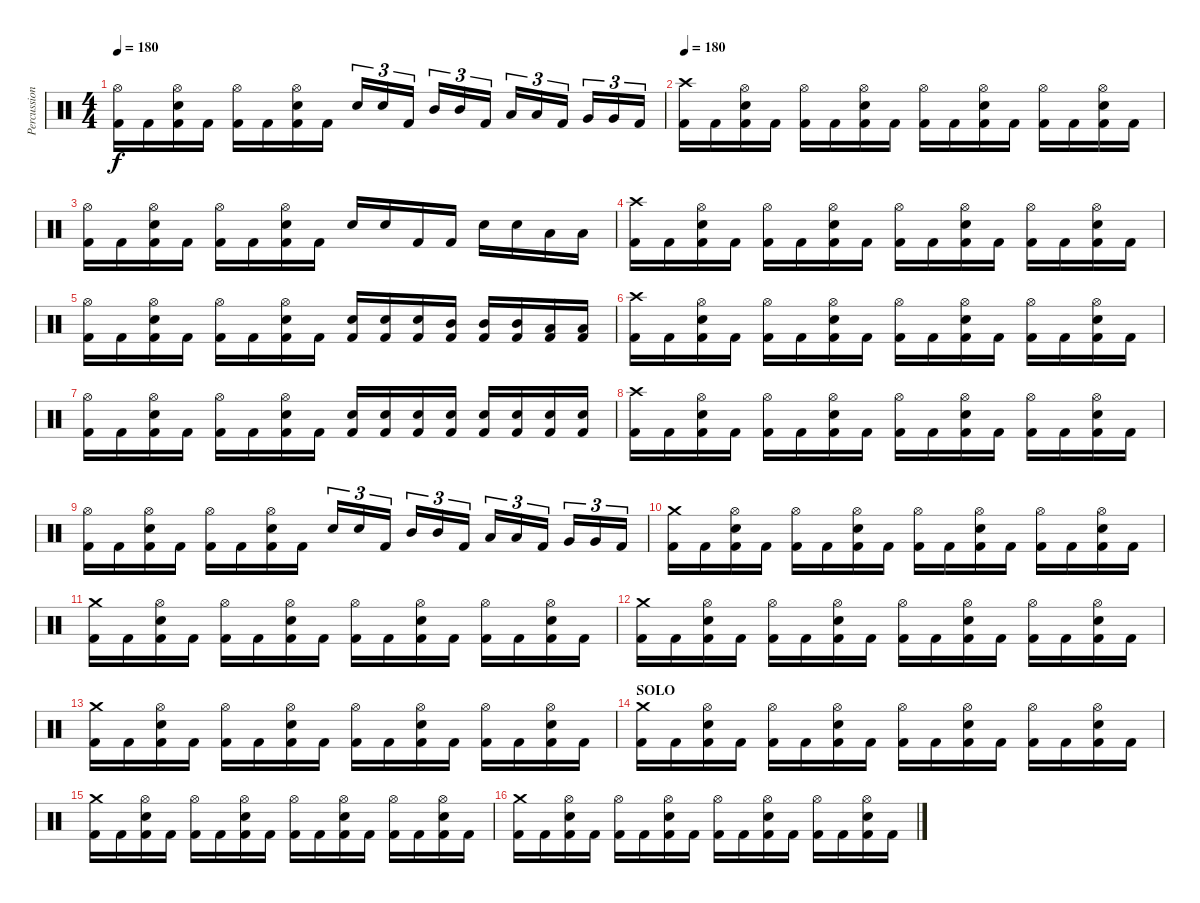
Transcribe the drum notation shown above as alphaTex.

\track ("Percussion" "Percussion") {instrument percussion}
\staff {score}
\articulation defaults
\ts (4 4)
\tempo 180
\clef neutral
\ks c
("Hi-Hat (open)" "Kick (hit) 2").16{dy f} "Kick (hit) 2".16 ("Hi-Hat (open)" "Snare (hit) 2" "Kick (hit) 2").16 "Kick (hit) 2".16 ("Hi-Hat (open)" "Kick (hit) 2").16 "Kick (hit) 2".16 ("Hi-Hat (open)" "Snare (hit) 2" "Kick (hit) 2").16 "Kick (hit) 2".16 "Snare (hit) 2".16{tu (3 2)} "Snare (hit) 2".16{tu (3 2)} "Kick (hit) 2".16{tu (3 2)} "Mid Tom (hit)".16{tu (3 2)} "Mid Tom (hit)".16{tu (3 2)} "Kick (hit) 2".16{tu (3 2)} "Low Tom (hit)".16{tu (3 2)} "Low Tom (hit)".16{tu (3 2)} "Kick (hit) 2".16{tu (3 2)} "Very Low Tom (hit)".16{tu (3 2)} "Very Low Tom (hit)".16{tu (3 2)} "Kick (hit) 2".16{tu (3 2)} |
\tempo 180
("Crash high (hit)" "Kick (hit) 2").16 "Kick (hit) 2".16 ("Hi-Hat (open)" "Snare (hit) 2" "Kick (hit) 2").16 "Kick (hit) 2".16 ("Hi-Hat (open)" "Kick (hit) 2").16 "Kick (hit) 2".16 ("Hi-Hat (open)" "Snare (hit) 2" "Kick (hit) 2").16 "Kick (hit) 2".16 ("Hi-Hat (open)" "Kick (hit) 2").16 "Kick (hit) 2".16 ("Hi-Hat (open)" "Snare (hit) 2" "Kick (hit) 2").16 "Kick (hit) 2".16 ("Hi-Hat (open)" "Kick (hit) 2").16 "Kick (hit) 2".16 ("Hi-Hat (open)" "Snare (hit) 2" "Kick (hit) 2").16 "Kick (hit) 2".16 |
("Hi-Hat (open)" "Kick (hit) 2").16 "Kick (hit) 2".16 ("Hi-Hat (open)" "Snare (hit) 2" "Kick (hit) 2").16 "Kick (hit) 2".16 ("Hi-Hat (open)" "Kick (hit) 2").16 "Kick (hit) 2".16 ("Hi-Hat (open)" "Snare (hit) 2" "Kick (hit) 2").16 "Kick (hit) 2".16 "Snare (hit) 2".16 "Snare (hit) 2".16 "Kick (hit) 2".16 "Kick (hit) 2".16 "Snare (hit) 2".16 "Snare (hit) 2".16 "Low Tom (hit)".16 "Low Tom (hit)".16 |
("Crash high (hit)" "Kick (hit) 2").16 "Kick (hit) 2".16 ("Hi-Hat (open)" "Snare (hit) 2" "Kick (hit) 2").16 "Kick (hit) 2".16 ("Hi-Hat (open)" "Kick (hit) 2").16 "Kick (hit) 2".16 ("Hi-Hat (open)" "Snare (hit) 2" "Kick (hit) 2").16 "Kick (hit) 2".16 ("Hi-Hat (open)" "Kick (hit) 2").16 "Kick (hit) 2".16 ("Hi-Hat (open)" "Snare (hit) 2" "Kick (hit) 2").16 "Kick (hit) 2".16 ("Hi-Hat (open)" "Kick (hit) 2").16 "Kick (hit) 2".16 ("Hi-Hat (open)" "Snare (hit) 2" "Kick (hit) 2").16 "Kick (hit) 2".16 |
("Hi-Hat (open)" "Kick (hit) 2").16 "Kick (hit) 2".16 ("Hi-Hat (open)" "Snare (hit) 2" "Kick (hit) 2").16 "Kick (hit) 2".16 ("Hi-Hat (open)" "Kick (hit) 2").16 "Kick (hit) 2".16 ("Hi-Hat (open)" "Snare (hit) 2" "Kick (hit) 2").16 "Kick (hit) 2".16 ("Snare (hit) 2" "Kick (hit) 2").16 ("Snare (hit) 2" "Kick (hit) 2").16 ("Snare (hit) 2" "Kick (hit) 2").16 ("Mid Tom (hit)" "Kick (hit) 2").16 ("Mid Tom (hit)" "Kick (hit) 2").16 ("Mid Tom (hit)" "Kick (hit) 2").16 ("Low Tom (hit)" "Kick (hit) 2").16 ("Low Tom (hit)" "Kick (hit) 2").16 |
("Crash high (hit)" "Kick (hit) 2").16 "Kick (hit) 2".16 ("Hi-Hat (open)" "Snare (hit) 2" "Kick (hit) 2").16 "Kick (hit) 2".16 ("Hi-Hat (open)" "Kick (hit) 2").16 "Kick (hit) 2".16 ("Hi-Hat (open)" "Snare (hit) 2" "Kick (hit) 2").16 "Kick (hit) 2".16 ("Hi-Hat (open)" "Kick (hit) 2").16 "Kick (hit) 2".16 ("Hi-Hat (open)" "Snare (hit) 2" "Kick (hit) 2").16 "Kick (hit) 2".16 ("Hi-Hat (open)" "Kick (hit) 2").16 "Kick (hit) 2".16 ("Hi-Hat (open)" "Snare (hit) 2" "Kick (hit) 2").16 "Kick (hit) 2".16 |
("Hi-Hat (open)" "Kick (hit) 2").16 "Kick (hit) 2".16 ("Hi-Hat (open)" "Snare (hit) 2" "Kick (hit) 2").16 "Kick (hit) 2".16 ("Hi-Hat (open)" "Kick (hit) 2").16 "Kick (hit) 2".16 ("Hi-Hat (open)" "Snare (hit) 2" "Kick (hit) 2").16 "Kick (hit) 2".16 ("Snare (hit) 2" "Kick (hit) 2").16 ("Snare (hit) 2" "Kick (hit) 2").16 ("Snare (hit) 2" "Kick (hit) 2").16 ("Snare (hit) 2" "Kick (hit) 2").16 ("Snare (hit) 2" "Kick (hit) 2").16 ("Snare (hit) 2" "Kick (hit) 2").16 ("Snare (hit) 2" "Kick (hit) 2").16 ("Snare (hit) 2" "Kick (hit) 2").16 |
("Crash high (hit)" "Kick (hit) 2").16 "Kick (hit) 2".16 ("Hi-Hat (open)" "Snare (hit) 2" "Kick (hit) 2").16 "Kick (hit) 2".16 ("Hi-Hat (open)" "Kick (hit) 2").16 "Kick (hit) 2".16 ("Hi-Hat (open)" "Snare (hit) 2" "Kick (hit) 2").16 "Kick (hit) 2".16 ("Hi-Hat (open)" "Kick (hit) 2").16 "Kick (hit) 2".16 ("Hi-Hat (open)" "Snare (hit) 2" "Kick (hit) 2").16 "Kick (hit) 2".16 ("Hi-Hat (open)" "Kick (hit) 2").16 "Kick (hit) 2".16 ("Hi-Hat (open)" "Snare (hit) 2" "Kick (hit) 2").16 "Kick (hit) 2".16 |
("Hi-Hat (open)" "Kick (hit) 2").16 "Kick (hit) 2".16 ("Hi-Hat (open)" "Snare (hit) 2" "Kick (hit) 2").16 "Kick (hit) 2".16 ("Hi-Hat (open)" "Kick (hit) 2").16 "Kick (hit) 2".16 ("Hi-Hat (open)" "Snare (hit) 2" "Kick (hit) 2").16 "Kick (hit) 2".16 "Snare (hit) 2".16{tu (3 2)} "Snare (hit) 2".16{tu (3 2)} "Kick (hit) 2".16{tu (3 2)} "Mid Tom (hit)".16{tu (3 2)} "Mid Tom (hit)".16{tu (3 2)} "Kick (hit) 2".16{tu (3 2)} "Low Tom (hit)".16{tu (3 2)} "Low Tom (hit)".16{tu (3 2)} "Kick (hit) 2".16{tu (3 2)} "Very Low Tom (hit)".16{tu (3 2)} "Very Low Tom (hit)".16{tu (3 2)} "Kick (hit) 2".16{tu (3 2)} |
("Crash medium (hit)" "Kick (hit) 2").16 "Kick (hit) 2".16 ("Hi-Hat (open)" "Snare (hit) 2" "Kick (hit) 2").16 "Kick (hit) 2".16 ("Hi-Hat (open)" "Kick (hit) 2").16 "Kick (hit) 2".16 ("Hi-Hat (open)" "Snare (hit) 2" "Kick (hit) 2").16 "Kick (hit) 2".16 ("Hi-Hat (open)" "Kick (hit) 2").16 "Kick (hit) 2".16 ("Hi-Hat (open)" "Snare (hit) 2" "Kick (hit) 2").16 "Kick (hit) 2".16 ("Hi-Hat (open)" "Kick (hit) 2").16 "Kick (hit) 2".16 ("Hi-Hat (open)" "Snare (hit) 2" "Kick (hit) 2").16 "Kick (hit) 2".16 |
("Crash medium (hit)" "Kick (hit) 2").16 "Kick (hit) 2".16 ("Hi-Hat (open)" "Snare (hit) 2" "Kick (hit) 2").16 "Kick (hit) 2".16 ("Hi-Hat (open)" "Kick (hit) 2").16 "Kick (hit) 2".16 ("Hi-Hat (open)" "Snare (hit) 2" "Kick (hit) 2").16 "Kick (hit) 2".16 ("Hi-Hat (open)" "Kick (hit) 2").16 "Kick (hit) 2".16 ("Hi-Hat (open)" "Snare (hit) 2" "Kick (hit) 2").16 "Kick (hit) 2".16 ("Hi-Hat (open)" "Kick (hit) 2").16 "Kick (hit) 2".16 ("Hi-Hat (open)" "Snare (hit) 2" "Kick (hit) 2").16 "Kick (hit) 2".16 |
("Crash medium (hit)" "Kick (hit) 2").16 "Kick (hit) 2".16 ("Hi-Hat (open)" "Snare (hit) 2" "Kick (hit) 2").16 "Kick (hit) 2".16 ("Hi-Hat (open)" "Kick (hit) 2").16 "Kick (hit) 2".16 ("Hi-Hat (open)" "Snare (hit) 2" "Kick (hit) 2").16 "Kick (hit) 2".16 ("Hi-Hat (open)" "Kick (hit) 2").16 "Kick (hit) 2".16 ("Hi-Hat (open)" "Snare (hit) 2" "Kick (hit) 2").16 "Kick (hit) 2".16 ("Hi-Hat (open)" "Kick (hit) 2").16 "Kick (hit) 2".16 ("Hi-Hat (open)" "Snare (hit) 2" "Kick (hit) 2").16 "Kick (hit) 2".16 |
("Crash medium (hit)" "Kick (hit) 2").16 "Kick (hit) 2".16 ("Hi-Hat (open)" "Snare (hit) 2" "Kick (hit) 2").16 "Kick (hit) 2".16 ("Hi-Hat (open)" "Kick (hit) 2").16 "Kick (hit) 2".16 ("Hi-Hat (open)" "Snare (hit) 2" "Kick (hit) 2").16 "Kick (hit) 2".16 ("Hi-Hat (open)" "Kick (hit) 2").16 "Kick (hit) 2".16 ("Hi-Hat (open)" "Snare (hit) 2" "Kick (hit) 2").16 "Kick (hit) 2".16 ("Hi-Hat (open)" "Kick (hit) 2").16 "Kick (hit) 2".16 ("Hi-Hat (open)" "Snare (hit) 2" "Kick (hit) 2").16 "Kick (hit) 2".16 |
\section ("" "SOLO")
("Crash medium (hit)" "Kick (hit) 2").16 "Kick (hit) 2".16 ("Hi-Hat (open)" "Snare (hit) 2" "Kick (hit) 2").16 "Kick (hit) 2".16 ("Hi-Hat (open)" "Kick (hit) 2").16 "Kick (hit) 2".16 ("Hi-Hat (open)" "Snare (hit) 2" "Kick (hit) 2").16 "Kick (hit) 2".16 ("Hi-Hat (open)" "Kick (hit) 2").16 "Kick (hit) 2".16 ("Hi-Hat (open)" "Snare (hit) 2" "Kick (hit) 2").16 "Kick (hit) 2".16 ("Hi-Hat (open)" "Kick (hit) 2").16 "Kick (hit) 2".16 ("Hi-Hat (open)" "Snare (hit) 2" "Kick (hit) 2").16 "Kick (hit) 2".16 |
("Crash medium (hit)" "Kick (hit) 2").16 "Kick (hit) 2".16 ("Hi-Hat (open)" "Snare (hit) 2" "Kick (hit) 2").16 "Kick (hit) 2".16 ("Hi-Hat (open)" "Kick (hit) 2").16 "Kick (hit) 2".16 ("Hi-Hat (open)" "Snare (hit) 2" "Kick (hit) 2").16 "Kick (hit) 2".16 ("Hi-Hat (open)" "Kick (hit) 2").16 "Kick (hit) 2".16 ("Hi-Hat (open)" "Snare (hit) 2" "Kick (hit) 2").16 "Kick (hit) 2".16 ("Hi-Hat (open)" "Kick (hit) 2").16 "Kick (hit) 2".16 ("Hi-Hat (open)" "Snare (hit) 2" "Kick (hit) 2").16 "Kick (hit) 2".16 |
("Crash medium (hit)" "Kick (hit) 2").16 "Kick (hit) 2".16 ("Hi-Hat (open)" "Snare (hit) 2" "Kick (hit) 2").16 "Kick (hit) 2".16 ("Hi-Hat (open)" "Kick (hit) 2").16 "Kick (hit) 2".16 ("Hi-Hat (open)" "Snare (hit) 2" "Kick (hit) 2").16 "Kick (hit) 2".16 ("Hi-Hat (open)" "Kick (hit) 2").16 "Kick (hit) 2".16 ("Hi-Hat (open)" "Snare (hit) 2" "Kick (hit) 2").16 "Kick (hit) 2".16 ("Hi-Hat (open)" "Kick (hit) 2").16 "Kick (hit) 2".16 ("Hi-Hat (open)" "Snare (hit) 2" "Kick (hit) 2").16 "Kick (hit) 2".16
